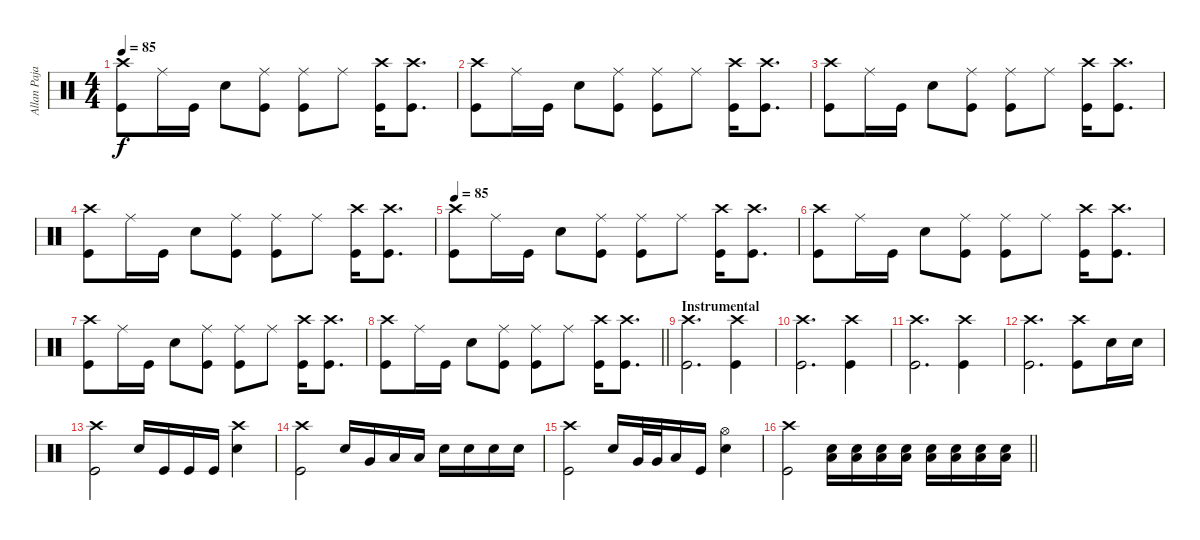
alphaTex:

\track ("Allan Pajarin (Drums)" "Allan Paja") {instrument percussion}
\staff {score}
\articulation defaults
\ts (4 4)
\tempo 85
\clef neutral
\ks c
("Kick (hit)" "Crash high (hit)").8{dy f} "Ride (middle)".16 "Kick (hit)".16 "Electric Snare (hit)".8 ("Ride (middle)" "Kick (hit)").8 ("Kick (hit)" "Ride (middle)").8 "Ride (middle)".8 ("Crash high (hit)" "Kick (hit)").16 ("Crash high (hit)" "Kick (hit)").8{d} |
("Kick (hit)" "Crash high (hit)").8 "Ride (middle)".16 "Kick (hit)".16 "Electric Snare (hit)".8 ("Ride (middle)" "Kick (hit)").8 ("Kick (hit)" "Ride (middle)").8 "Ride (middle)".8 ("Crash high (hit)" "Kick (hit)").16 ("Crash high (hit)" "Kick (hit)").8{d} |
("Kick (hit)" "Crash high (hit)").8 "Ride (middle)".16 "Kick (hit)".16 "Electric Snare (hit)".8 ("Ride (middle)" "Kick (hit)").8 ("Kick (hit)" "Ride (middle)").8 "Ride (middle)".8 ("Crash high (hit)" "Kick (hit)").16 ("Crash high (hit)" "Kick (hit)").8{d} |
("Kick (hit)" "Crash high (hit)").8 "Ride (middle)".16 "Kick (hit)".16 "Electric Snare (hit)".8 ("Ride (middle)" "Kick (hit)").8 ("Kick (hit)" "Ride (middle)").8 "Ride (middle)".8 ("Crash high (hit)" "Kick (hit)").16 ("Crash high (hit)" "Kick (hit)").8{d} |
\tempo 85
("Kick (hit)" "Crash high (hit)").8 "Ride (middle)".16 "Kick (hit)".16 "Electric Snare (hit)".8 ("Ride (middle)" "Kick (hit)").8 ("Kick (hit)" "Ride (middle)").8 "Ride (middle)".8 ("Crash high (hit)" "Kick (hit)").16 ("Crash high (hit)" "Kick (hit)").8{d} |
("Kick (hit)" "Crash high (hit)").8 "Ride (middle)".16 "Kick (hit)".16 "Electric Snare (hit)".8 ("Ride (middle)" "Kick (hit)").8 ("Kick (hit)" "Ride (middle)").8 "Ride (middle)".8 ("Crash high (hit)" "Kick (hit)").16 ("Crash high (hit)" "Kick (hit)").8{d} |
("Kick (hit)" "Crash high (hit)").8 "Ride (middle)".16 "Kick (hit)".16 "Electric Snare (hit)".8 ("Ride (middle)" "Kick (hit)").8 ("Kick (hit)" "Ride (middle)").8 "Ride (middle)".8 ("Crash high (hit)" "Kick (hit)").16 ("Crash high (hit)" "Kick (hit)").8{d} |
\barLineRight lightlight
("Kick (hit)" "Crash high (hit)").8 "Ride (middle)".16 "Kick (hit)".16 "Electric Snare (hit)".8 ("Ride (middle)" "Kick (hit)").8 ("Kick (hit)" "Ride (middle)").8 "Ride (middle)".8 ("Crash high (hit)" "Kick (hit)").16 ("Crash high (hit)" "Kick (hit)").8{d} |
\section ("" "Instrumental")
("Crash high (hit)" "Kick (hit)").2{d} ("Crash high (hit)" "Kick (hit)").4 |
("Crash high (hit)" "Kick (hit)").2{d} ("Crash high (hit)" "Kick (hit)").4 |
("Crash high (hit)" "Kick (hit)").2{d} ("Crash high (hit)" "Kick (hit)").4 |
("Crash high (hit)" "Kick (hit)").2{d} ("Crash high (hit)" "Kick (hit)").8 "Electric Snare (hit)".16 "Electric Snare (hit)".16 |
("Crash high (hit)" "Kick (hit)").2 "Electric Snare (hit)".16 "Kick (hit)".16 "Kick (hit)".16 "Kick (hit)".16 ("Electric Snare (hit)" "Crash high (hit)").4 |
("Crash high (hit)" "Kick (hit)").2 "Electric Snare (hit)".16 "Very Low Tom (hit)".16 "Low Floor Tom (hit)".16 "Low Floor Tom (hit)".16 "Electric Snare (hit)".16 "Electric Snare (hit)".16 "Electric Snare (hit)".16 "Electric Snare (hit)".16 |
("Crash high (hit)" "Kick (hit)").2 "Electric Snare (hit)".16 "Very Low Tom (hit)".32 "Very Low Tom (hit)".32 "Low Floor Tom (hit)".16 "Kick (hit)".16 ("Electric Snare (hit)" "Hi-Hat (open)").4 |
\barLineRight lightlight
("Crash high (hit)" "Kick (hit)").2 ("Low Floor Tom (hit)" "Electric Snare (hit)").16{volume 16} ("Low Floor Tom (hit)" "Electric Snare (hit)").16 ("Low Floor Tom (hit)" "Electric Snare (hit)").16 ("Low Floor Tom (hit)" "Electric Snare (hit)").16 ("Low Floor Tom (hit)" "Electric Snare (hit)").16 ("Low Floor Tom (hit)" "Electric Snare (hit)").16 ("Low Floor Tom (hit)" "Electric Snare (hit)").16 ("Low Floor Tom (hit)" "Electric Snare (hit)").16
